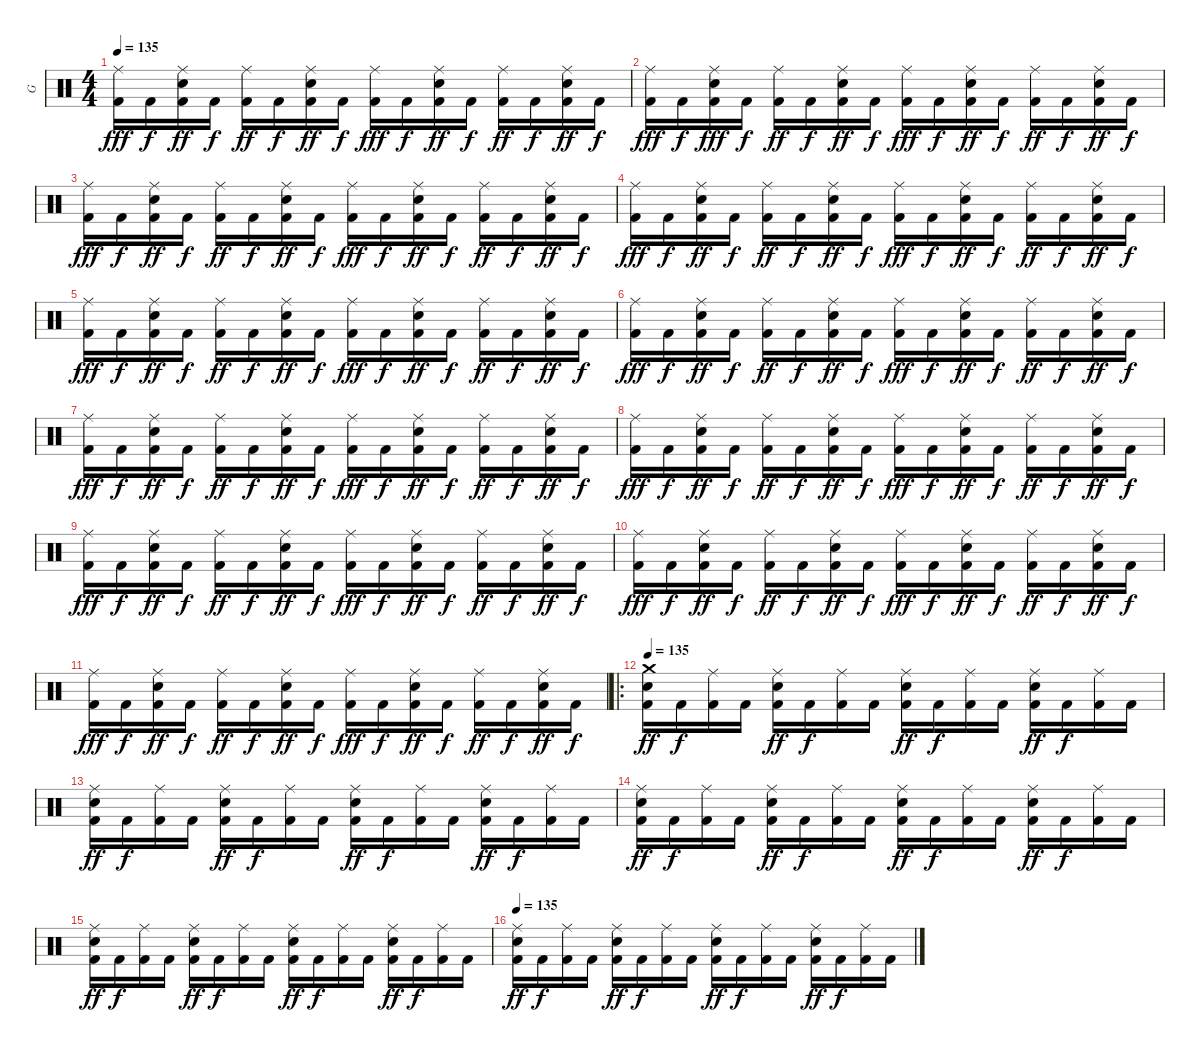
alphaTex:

\track ("G" "G") {instrument percussion}
\staff {score}
\articulation defaults
\ts (4 4)
\tempo 135
\clef neutral
\ks c
("Ride (middle)" "Kick (hit) 2").16{dy fff} "Kick (hit) 2".16{dy f} ("Ride (middle)" "Electric Snare (hit)" "Kick (hit) 2").16{dy ff} "Kick (hit) 2".16{dy f} ("Ride (middle)" "Kick (hit) 2").16{dy ff} "Kick (hit) 2".16{dy f} ("Ride (middle)" "Electric Snare (hit)" "Kick (hit) 2").16{dy ff} "Kick (hit) 2".16{dy f} ("Ride (middle)" "Kick (hit) 2").16{dy fff} "Kick (hit) 2".16{dy f} ("Ride (middle)" "Electric Snare (hit)" "Kick (hit) 2").16{dy ff} "Kick (hit) 2".16{dy f} ("Ride (middle)" "Kick (hit) 2").16{dy ff} "Kick (hit) 2".16{dy f} ("Ride (middle)" "Electric Snare (hit)" "Kick (hit) 2").16{dy ff} "Kick (hit) 2".16{dy f} |
("Ride (middle)" "Kick (hit) 2").16{dy fff} "Kick (hit) 2".16{dy f} ("Ride (middle)" "Electric Snare (hit)" "Kick (hit) 2").16{dy fff} "Kick (hit) 2".16{dy f} ("Ride (middle)" "Kick (hit) 2").16{dy ff} "Kick (hit) 2".16{dy f} ("Ride (middle)" "Electric Snare (hit)" "Kick (hit) 2").16{dy ff} "Kick (hit) 2".16{dy f} ("Ride (middle)" "Kick (hit) 2").16{dy fff} "Kick (hit) 2".16{dy f} ("Ride (middle)" "Electric Snare (hit)" "Kick (hit) 2").16{dy ff} "Kick (hit) 2".16{dy f} ("Ride (middle)" "Kick (hit) 2").16{dy ff} "Kick (hit) 2".16{dy f} ("Ride (middle)" "Electric Snare (hit)" "Kick (hit) 2").16{dy ff} "Kick (hit) 2".16{dy f} |
("Ride (middle)" "Kick (hit) 2").16{dy fff} "Kick (hit) 2".16{dy f} ("Ride (middle)" "Electric Snare (hit)" "Kick (hit) 2").16{dy ff} "Kick (hit) 2".16{dy f} ("Ride (middle)" "Kick (hit) 2").16{dy ff} "Kick (hit) 2".16{dy f} ("Ride (middle)" "Electric Snare (hit)" "Kick (hit) 2").16{dy ff} "Kick (hit) 2".16{dy f} ("Ride (middle)" "Kick (hit) 2").16{dy fff} "Kick (hit) 2".16{dy f} ("Ride (middle)" "Electric Snare (hit)" "Kick (hit) 2").16{dy ff} "Kick (hit) 2".16{dy f} ("Ride (middle)" "Kick (hit) 2").16{dy ff} "Kick (hit) 2".16{dy f} ("Ride (middle)" "Electric Snare (hit)" "Kick (hit) 2").16{dy ff} "Kick (hit) 2".16{dy f} |
("Ride (middle)" "Kick (hit) 2").16{dy fff} "Kick (hit) 2".16{dy f} ("Ride (middle)" "Electric Snare (hit)" "Kick (hit) 2").16{dy ff} "Kick (hit) 2".16{dy f} ("Ride (middle)" "Kick (hit) 2").16{dy ff} "Kick (hit) 2".16{dy f} ("Ride (middle)" "Electric Snare (hit)" "Kick (hit) 2").16{dy ff} "Kick (hit) 2".16{dy f} ("Ride (middle)" "Kick (hit) 2").16{dy fff} "Kick (hit) 2".16{dy f} ("Ride (middle)" "Electric Snare (hit)" "Kick (hit) 2").16{dy ff} "Kick (hit) 2".16{dy f} ("Ride (middle)" "Kick (hit) 2").16{dy ff} "Kick (hit) 2".16{dy f} ("Ride (middle)" "Electric Snare (hit)" "Kick (hit) 2").16{dy ff} "Kick (hit) 2".16{dy f} |
("Ride (middle)" "Kick (hit) 2").16{dy fff} "Kick (hit) 2".16{dy f} ("Ride (middle)" "Electric Snare (hit)" "Kick (hit) 2").16{dy ff} "Kick (hit) 2".16{dy f} ("Ride (middle)" "Kick (hit) 2").16{dy ff} "Kick (hit) 2".16{dy f} ("Ride (middle)" "Electric Snare (hit)" "Kick (hit) 2").16{dy ff} "Kick (hit) 2".16{dy f} ("Ride (middle)" "Kick (hit) 2").16{dy fff} "Kick (hit) 2".16{dy f} ("Ride (middle)" "Electric Snare (hit)" "Kick (hit) 2").16{dy ff} "Kick (hit) 2".16{dy f} ("Ride (middle)" "Kick (hit) 2").16{dy ff} "Kick (hit) 2".16{dy f} ("Ride (middle)" "Electric Snare (hit)" "Kick (hit) 2").16{dy ff} "Kick (hit) 2".16{dy f} |
("Ride (middle)" "Kick (hit) 2").16{dy fff} "Kick (hit) 2".16{dy f} ("Ride (middle)" "Electric Snare (hit)" "Kick (hit) 2").16{dy ff} "Kick (hit) 2".16{dy f} ("Ride (middle)" "Kick (hit) 2").16{dy ff} "Kick (hit) 2".16{dy f} ("Ride (middle)" "Electric Snare (hit)" "Kick (hit) 2").16{dy ff} "Kick (hit) 2".16{dy f} ("Ride (middle)" "Kick (hit) 2").16{dy fff} "Kick (hit) 2".16{dy f} ("Ride (middle)" "Electric Snare (hit)" "Kick (hit) 2").16{dy ff} "Kick (hit) 2".16{dy f} ("Ride (middle)" "Kick (hit) 2").16{dy ff} "Kick (hit) 2".16{dy f} ("Ride (middle)" "Electric Snare (hit)" "Kick (hit) 2").16{dy ff} "Kick (hit) 2".16{dy f} |
("Ride (middle)" "Kick (hit) 2").16{dy fff} "Kick (hit) 2".16{dy f} ("Ride (middle)" "Electric Snare (hit)" "Kick (hit) 2").16{dy ff} "Kick (hit) 2".16{dy f} ("Ride (middle)" "Kick (hit) 2").16{dy ff} "Kick (hit) 2".16{dy f} ("Ride (middle)" "Electric Snare (hit)" "Kick (hit) 2").16{dy ff} "Kick (hit) 2".16{dy f} ("Ride (middle)" "Kick (hit) 2").16{dy fff} "Kick (hit) 2".16{dy f} ("Ride (middle)" "Electric Snare (hit)" "Kick (hit) 2").16{dy ff} "Kick (hit) 2".16{dy f} ("Ride (middle)" "Kick (hit) 2").16{dy ff} "Kick (hit) 2".16{dy f} ("Ride (middle)" "Electric Snare (hit)" "Kick (hit) 2").16{dy ff} "Kick (hit) 2".16{dy f} |
("Ride (middle)" "Kick (hit) 2").16{dy fff} "Kick (hit) 2".16{dy f} ("Ride (middle)" "Electric Snare (hit)" "Kick (hit) 2").16{dy ff} "Kick (hit) 2".16{dy f} ("Ride (middle)" "Kick (hit) 2").16{dy ff} "Kick (hit) 2".16{dy f} ("Ride (middle)" "Electric Snare (hit)" "Kick (hit) 2").16{dy ff} "Kick (hit) 2".16{dy f} ("Ride (middle)" "Kick (hit) 2").16{dy fff} "Kick (hit) 2".16{dy f} ("Ride (middle)" "Electric Snare (hit)" "Kick (hit) 2").16{dy ff} "Kick (hit) 2".16{dy f} ("Ride (middle)" "Kick (hit) 2").16{dy ff} "Kick (hit) 2".16{dy f} ("Ride (middle)" "Electric Snare (hit)" "Kick (hit) 2").16{dy ff} "Kick (hit) 2".16{dy f} |
("Ride (middle)" "Kick (hit) 2").16{dy fff} "Kick (hit) 2".16{dy f} ("Ride (middle)" "Electric Snare (hit)" "Kick (hit) 2").16{dy ff} "Kick (hit) 2".16{dy f} ("Ride (middle)" "Kick (hit) 2").16{dy ff} "Kick (hit) 2".16{dy f} ("Ride (middle)" "Electric Snare (hit)" "Kick (hit) 2").16{dy ff} "Kick (hit) 2".16{dy f} ("Ride (middle)" "Kick (hit) 2").16{dy fff} "Kick (hit) 2".16{dy f} ("Ride (middle)" "Electric Snare (hit)" "Kick (hit) 2").16{dy ff} "Kick (hit) 2".16{dy f} ("Ride (middle)" "Kick (hit) 2").16{dy ff} "Kick (hit) 2".16{dy f} ("Ride (middle)" "Electric Snare (hit)" "Kick (hit) 2").16{dy ff} "Kick (hit) 2".16{dy f} |
("Ride (middle)" "Kick (hit) 2").16{dy fff} "Kick (hit) 2".16{dy f} ("Ride (middle)" "Electric Snare (hit)" "Kick (hit) 2").16{dy ff} "Kick (hit) 2".16{dy f} ("Ride (middle)" "Kick (hit) 2").16{dy ff} "Kick (hit) 2".16{dy f} ("Ride (middle)" "Electric Snare (hit)" "Kick (hit) 2").16{dy ff} "Kick (hit) 2".16{dy f} ("Ride (middle)" "Kick (hit) 2").16{dy fff} "Kick (hit) 2".16{dy f} ("Ride (middle)" "Electric Snare (hit)" "Kick (hit) 2").16{dy ff} "Kick (hit) 2".16{dy f} ("Ride (middle)" "Kick (hit) 2").16{dy ff} "Kick (hit) 2".16{dy f} ("Ride (middle)" "Electric Snare (hit)" "Kick (hit) 2").16{dy ff} "Kick (hit) 2".16{dy f} |
("Ride (middle)" "Kick (hit) 2").16{dy fff} "Kick (hit) 2".16{dy f} ("Ride (middle)" "Electric Snare (hit)" "Kick (hit) 2").16{dy ff} "Kick (hit) 2".16{dy f} ("Ride (middle)" "Kick (hit) 2").16{dy ff} "Kick (hit) 2".16{dy f} ("Ride (middle)" "Electric Snare (hit)" "Kick (hit) 2").16{dy ff} "Kick (hit) 2".16{dy f} ("Ride (middle)" "Kick (hit) 2").16{dy fff} "Kick (hit) 2".16{dy f} ("Ride (middle)" "Electric Snare (hit)" "Kick (hit) 2").16{dy ff} "Kick (hit) 2".16{dy f} ("Ride (middle)" "Kick (hit) 2").16{dy ff} "Kick (hit) 2".16{dy f} ("Ride (middle)" "Electric Snare (hit)" "Kick (hit) 2").16{dy ff} "Kick (hit) 2".16{dy f} |
\ro
\tempo 135
("Crash medium (hit)" "Electric Snare (hit)" "Kick (hit) 2").16{dy ff} "Kick (hit) 2".16{dy f} ("Ride (middle)" "Kick (hit) 2").16 "Kick (hit) 2".16 ("Ride (middle)" "Electric Snare (hit)" "Kick (hit) 2").16{dy ff} "Kick (hit) 2".16{dy f} ("Ride (middle)" "Kick (hit) 2").16 "Kick (hit) 2".16 ("Ride (middle)" "Electric Snare (hit)" "Kick (hit) 2").16{dy ff} "Kick (hit) 2".16{dy f} ("Ride (middle)" "Kick (hit) 2").16 "Kick (hit) 2".16 ("Ride (middle)" "Electric Snare (hit)" "Kick (hit) 2").16{dy ff} "Kick (hit) 2".16{dy f} ("Ride (middle)" "Kick (hit) 2").16 "Kick (hit) 2".16 |
("Ride (middle)" "Electric Snare (hit)" "Kick (hit) 2").16{dy ff} "Kick (hit) 2".16{dy f} ("Ride (middle)" "Kick (hit) 2").16 "Kick (hit) 2".16 ("Ride (middle)" "Electric Snare (hit)" "Kick (hit) 2").16{dy ff} "Kick (hit) 2".16{dy f} ("Ride (middle)" "Kick (hit) 2").16 "Kick (hit) 2".16 ("Ride (middle)" "Electric Snare (hit)" "Kick (hit) 2").16{dy ff} "Kick (hit) 2".16{dy f} ("Ride (middle)" "Kick (hit) 2").16 "Kick (hit) 2".16 ("Ride (middle)" "Electric Snare (hit)" "Kick (hit) 2").16{dy ff} "Kick (hit) 2".16{dy f} ("Ride (middle)" "Kick (hit) 2").16 "Kick (hit) 2".16 |
("Ride (middle)" "Electric Snare (hit)" "Kick (hit) 2").16{dy ff} "Kick (hit) 2".16{dy f} ("Ride (middle)" "Kick (hit) 2").16 "Kick (hit) 2".16 ("Ride (middle)" "Electric Snare (hit)" "Kick (hit) 2").16{dy ff} "Kick (hit) 2".16{dy f} ("Ride (middle)" "Kick (hit) 2").16 "Kick (hit) 2".16 ("Ride (middle)" "Electric Snare (hit)" "Kick (hit) 2").16{dy ff} "Kick (hit) 2".16{dy f} ("Ride (middle)" "Kick (hit) 2").16 "Kick (hit) 2".16 ("Ride (middle)" "Electric Snare (hit)" "Kick (hit) 2").16{dy ff} "Kick (hit) 2".16{dy f} ("Ride (middle)" "Kick (hit) 2").16 "Kick (hit) 2".16 |
("Ride (middle)" "Electric Snare (hit)" "Kick (hit) 2").16{dy ff} "Kick (hit) 2".16{dy f} ("Ride (middle)" "Kick (hit) 2").16 "Kick (hit) 2".16 ("Ride (middle)" "Electric Snare (hit)" "Kick (hit) 2").16{dy ff} "Kick (hit) 2".16{dy f} ("Ride (middle)" "Kick (hit) 2").16 "Kick (hit) 2".16 ("Ride (middle)" "Electric Snare (hit)" "Kick (hit) 2").16{dy ff} "Kick (hit) 2".16{dy f} ("Ride (middle)" "Kick (hit) 2").16 "Kick (hit) 2".16 ("Ride (middle)" "Electric Snare (hit)" "Kick (hit) 2").16{dy ff} "Kick (hit) 2".16{dy f} ("Ride (middle)" "Kick (hit) 2").16 "Kick (hit) 2".16 |
\tempo 135
("Ride (middle)" "Electric Snare (hit)" "Kick (hit) 2").16{dy ff} "Kick (hit) 2".16{dy f} ("Ride (middle)" "Kick (hit) 2").16 "Kick (hit) 2".16 ("Ride (middle)" "Electric Snare (hit)" "Kick (hit) 2").16{dy ff} "Kick (hit) 2".16{dy f} ("Ride (middle)" "Kick (hit) 2").16 "Kick (hit) 2".16 ("Ride (middle)" "Electric Snare (hit)" "Kick (hit) 2").16{dy ff} "Kick (hit) 2".16{dy f} ("Ride (middle)" "Kick (hit) 2").16 "Kick (hit) 2".16 ("Ride (middle)" "Electric Snare (hit)" "Kick (hit) 2").16{dy ff} "Kick (hit) 2".16{dy f} ("Ride (middle)" "Kick (hit) 2").16 "Kick (hit) 2".16
